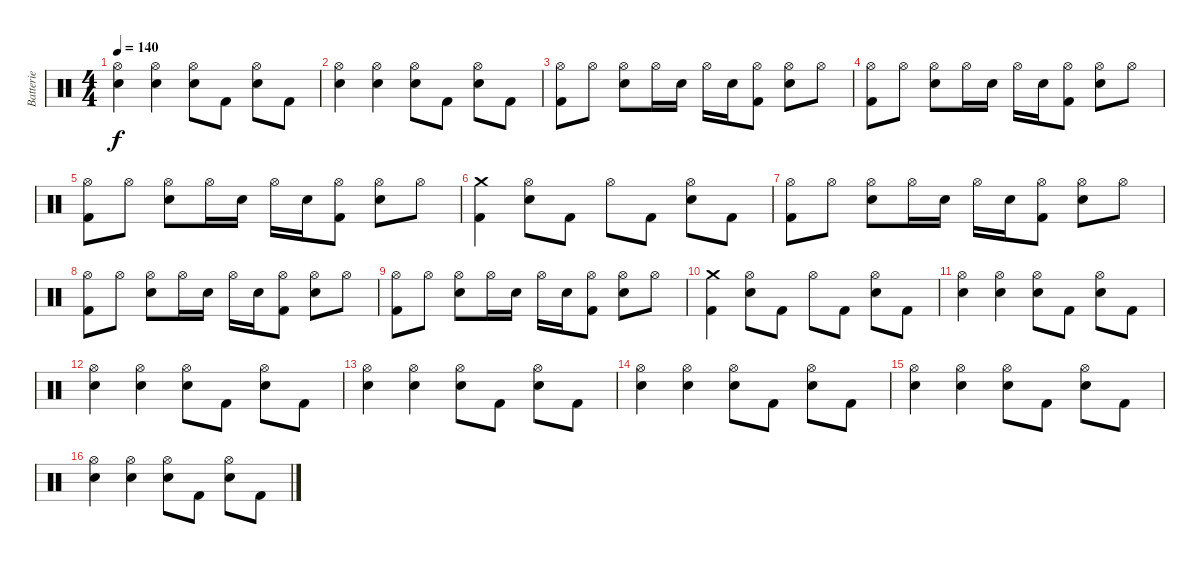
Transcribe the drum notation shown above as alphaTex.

\track ("Batterie" "Batterie") {instrument percussion}
\staff {score}
\articulation defaults
\ts (4 4)
\tempo 140
\clef neutral
\ks c
("Electric Snare (hit)" "Hi-Hat (open)").4{dy f} ("Electric Snare (hit)" "Hi-Hat (open)").4 ("Electric Snare (hit)" "Hi-Hat (open)").8 "Kick (hit) 2".8 ("Electric Snare (hit)" "Hi-Hat (open)").8 "Kick (hit) 2".8 |
("Electric Snare (hit)" "Hi-Hat (open)").4 ("Electric Snare (hit)" "Hi-Hat (open)").4 ("Electric Snare (hit)" "Hi-Hat (open)").8 "Kick (hit) 2".8 ("Electric Snare (hit)" "Hi-Hat (open)").8 "Kick (hit) 2".8 |
("Kick (hit) 2" "Hi-Hat (open)").8 "Hi-Hat (open)".8 ("Electric Snare (hit)" "Hi-Hat (open)").8 "Hi-Hat (open)".16 "Electric Snare (hit)".16 "Hi-Hat (open)".16 "Electric Snare (hit)".16 ("Kick (hit) 2" "Hi-Hat (open)").8 ("Electric Snare (hit)" "Hi-Hat (open)").8 "Hi-Hat (open)".8 |
("Kick (hit) 2" "Hi-Hat (open)").8 "Hi-Hat (open)".8 ("Electric Snare (hit)" "Hi-Hat (open)").8 "Hi-Hat (open)".16 "Electric Snare (hit)".16 "Hi-Hat (open)".16 "Electric Snare (hit)".16 ("Kick (hit) 2" "Hi-Hat (open)").8 ("Electric Snare (hit)" "Hi-Hat (open)").8 "Hi-Hat (open)".8 |
("Kick (hit) 2" "Hi-Hat (open)").8 "Hi-Hat (open)".8 ("Electric Snare (hit)" "Hi-Hat (open)").8 "Hi-Hat (open)".16 "Electric Snare (hit)".16 "Hi-Hat (open)".16 "Electric Snare (hit)".16 ("Kick (hit) 2" "Hi-Hat (open)").8 ("Electric Snare (hit)" "Hi-Hat (open)").8 "Hi-Hat (open)".8 |
("Kick (hit) 2" "Crash medium (hit)").4 ("Electric Snare (hit)" "Hi-Hat (open)").8 "Kick (hit) 2".8 "Hi-Hat (open)".8 "Kick (hit) 2".8 ("Electric Snare (hit)" "Hi-Hat (open)").8 "Kick (hit) 2".8 |
("Kick (hit) 2" "Hi-Hat (open)").8 "Hi-Hat (open)".8 ("Electric Snare (hit)" "Hi-Hat (open)").8 "Hi-Hat (open)".16 "Electric Snare (hit)".16 "Hi-Hat (open)".16 "Electric Snare (hit)".16 ("Kick (hit) 2" "Hi-Hat (open)").8 ("Electric Snare (hit)" "Hi-Hat (open)").8 "Hi-Hat (open)".8 |
("Kick (hit) 2" "Hi-Hat (open)").8 "Hi-Hat (open)".8 ("Electric Snare (hit)" "Hi-Hat (open)").8 "Hi-Hat (open)".16 "Electric Snare (hit)".16 "Hi-Hat (open)".16 "Electric Snare (hit)".16 ("Kick (hit) 2" "Hi-Hat (open)").8 ("Electric Snare (hit)" "Hi-Hat (open)").8 "Hi-Hat (open)".8 |
("Kick (hit) 2" "Hi-Hat (open)").8 "Hi-Hat (open)".8 ("Electric Snare (hit)" "Hi-Hat (open)").8 "Hi-Hat (open)".16 "Electric Snare (hit)".16 "Hi-Hat (open)".16 "Electric Snare (hit)".16 ("Kick (hit) 2" "Hi-Hat (open)").8 ("Electric Snare (hit)" "Hi-Hat (open)").8 "Hi-Hat (open)".8 |
("Kick (hit) 2" "Crash medium (hit)").4 ("Electric Snare (hit)" "Hi-Hat (open)").8 "Kick (hit) 2".8 "Hi-Hat (open)".8 "Kick (hit) 2".8 ("Electric Snare (hit)" "Hi-Hat (open)").8 "Kick (hit) 2".8 |
("Electric Snare (hit)" "Hi-Hat (open)").4 ("Electric Snare (hit)" "Hi-Hat (open)").4 ("Electric Snare (hit)" "Hi-Hat (open)").8 "Kick (hit) 2".8 ("Electric Snare (hit)" "Hi-Hat (open)").8 "Kick (hit) 2".8 |
("Electric Snare (hit)" "Hi-Hat (open)").4 ("Electric Snare (hit)" "Hi-Hat (open)").4 ("Electric Snare (hit)" "Hi-Hat (open)").8 "Kick (hit) 2".8 ("Electric Snare (hit)" "Hi-Hat (open)").8 "Kick (hit) 2".8 |
("Electric Snare (hit)" "Hi-Hat (open)").4 ("Electric Snare (hit)" "Hi-Hat (open)").4 ("Electric Snare (hit)" "Hi-Hat (open)").8 "Kick (hit) 2".8 ("Electric Snare (hit)" "Hi-Hat (open)").8 "Kick (hit) 2".8 |
("Electric Snare (hit)" "Hi-Hat (open)").4 ("Electric Snare (hit)" "Hi-Hat (open)").4 ("Electric Snare (hit)" "Hi-Hat (open)").8 "Kick (hit) 2".8 ("Electric Snare (hit)" "Hi-Hat (open)").8 "Kick (hit) 2".8 |
("Electric Snare (hit)" "Hi-Hat (open)").4 ("Electric Snare (hit)" "Hi-Hat (open)").4 ("Electric Snare (hit)" "Hi-Hat (open)").8 "Kick (hit) 2".8 ("Electric Snare (hit)" "Hi-Hat (open)").8 "Kick (hit) 2".8 |
("Electric Snare (hit)" "Hi-Hat (open)").4 ("Electric Snare (hit)" "Hi-Hat (open)").4 ("Electric Snare (hit)" "Hi-Hat (open)").8 "Kick (hit) 2".8 ("Electric Snare (hit)" "Hi-Hat (open)").8 "Kick (hit) 2".8
